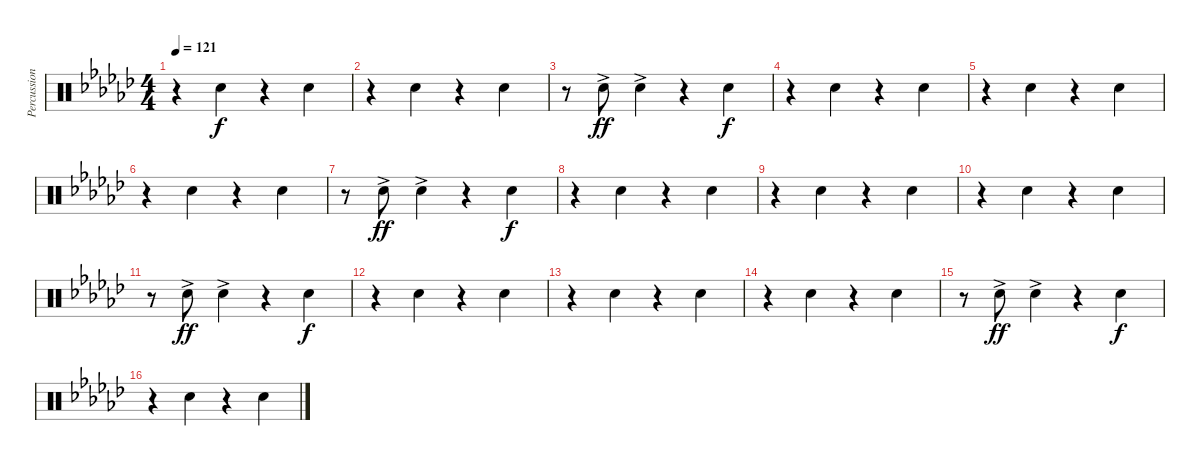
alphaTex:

\track ("Percussion" "Percussion") {instrument percussion}
\staff {score}
\articulation defaults
\ts (4 4)
\tempo 121
\clef neutral
\ks ebminor
r.4{dy f} "Hand Clap (hit)".4 r.4 "Hand Clap (hit)".4 |
r.4 "Hand Clap (hit)".4 r.4 "Hand Clap (hit)".4 |
r.8 "Hand Clap (hit)"{ac}.8{dy ff} "Hand Clap (hit)"{ac}.4 r.4 "Hand Clap (hit)".4{dy f} |
r.4 "Hand Clap (hit)".4 r.4 "Hand Clap (hit)".4 |
r.4 "Hand Clap (hit)".4 r.4 "Hand Clap (hit)".4 |
r.4 "Hand Clap (hit)".4 r.4 "Hand Clap (hit)".4 |
r.8 "Hand Clap (hit)"{ac}.8{dy ff} "Hand Clap (hit)"{ac}.4 r.4 "Hand Clap (hit)".4{dy f} |
r.4 "Hand Clap (hit)".4 r.4 "Hand Clap (hit)".4 |
r.4{volume 9} "Hand Clap (hit)".4 r.4 "Hand Clap (hit)".4 |
r.4 "Hand Clap (hit)".4 r.4 "Hand Clap (hit)".4 |
r.8 "Hand Clap (hit)"{ac}.8{dy ff} "Hand Clap (hit)"{ac}.4 r.4 "Hand Clap (hit)".4{dy f} |
r.4 "Hand Clap (hit)".4 r.4 "Hand Clap (hit)".4 |
r.4{volume 6} "Hand Clap (hit)".4 r.4 "Hand Clap (hit)".4 |
r.4 "Hand Clap (hit)".4 r.4 "Hand Clap (hit)".4 |
r.8 "Hand Clap (hit)"{ac}.8{dy ff} "Hand Clap (hit)"{ac}.4 r.4 "Hand Clap (hit)".4{dy f} |
r.4 "Hand Clap (hit)".4 r.4 "Hand Clap (hit)".4
